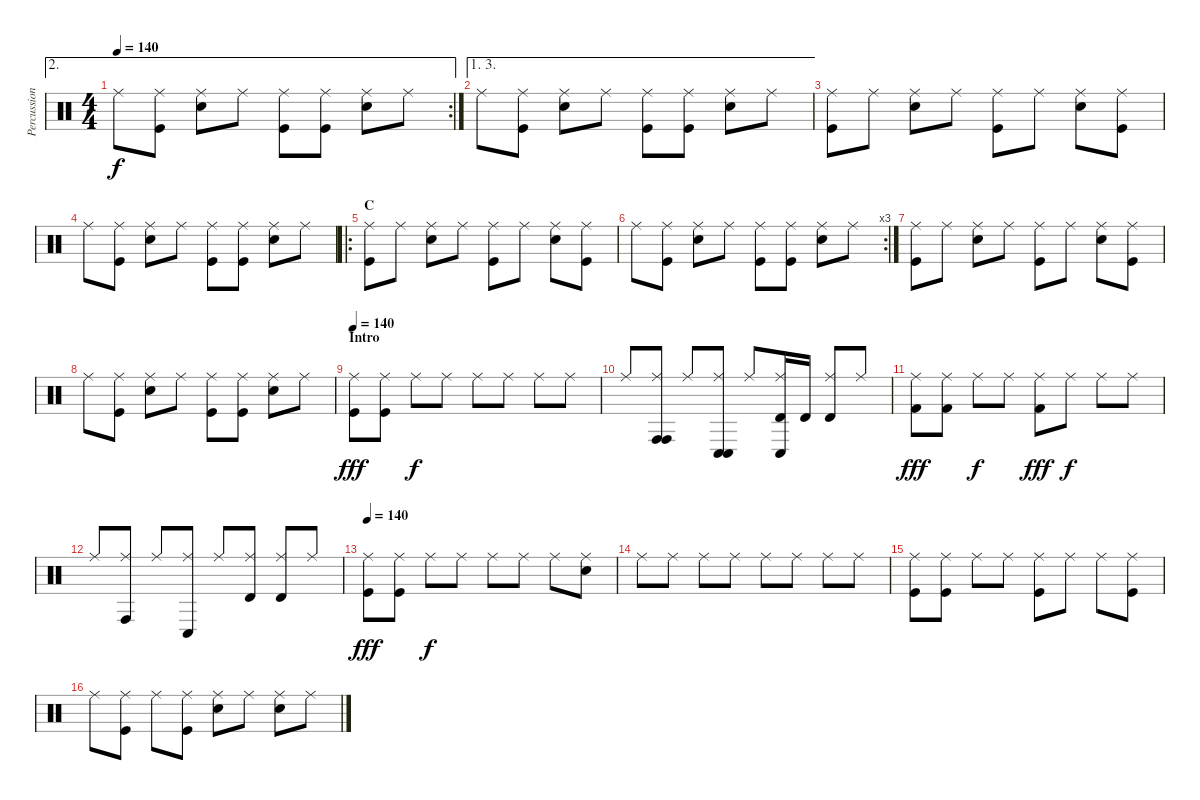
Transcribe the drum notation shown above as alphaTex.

\track ("Percussions" "Percussion") {instrument percussion}
\staff {score}
\articulation defaults
\ae 2
\rc 2
\ts (4 4)
\tempo 140
\clef neutral
\ks c "Ride (middle)".8{dy f}
("Ride (middle)" "Kick (hit)").8 ("Ride (middle)" "Snare (hit) 2").8 "Ride (middle)".8 ("Ride (middle)" "Kick (hit)").8 ("Ride (middle)" "Kick (hit)").8 ("Ride (middle)" "Snare (hit) 2").8 "Ride (middle)".8 |
\ae (1 3)
"Ride (middle)".8 ("Ride (middle)" "Kick (hit)").8 ("Ride (middle)" "Snare (hit) 2").8 "Ride (middle)".8 ("Ride (middle)" "Kick (hit)").8 ("Ride (middle)" "Kick (hit)").8 ("Ride (middle)" "Snare (hit) 2").8 "Ride (middle)".8 |
("Ride (middle)" "Kick (hit)").8 "Ride (middle)".8 ("Ride (middle)" "Snare (hit) 2").8 "Ride (middle)".8 ("Ride (middle)" "Kick (hit)").8 "Ride (middle)".8 ("Ride (middle)" "Snare (hit) 2").8 ("Ride (middle)" "Kick (hit)").8 |
"Ride (middle)".8 ("Ride (middle)" "Kick (hit)").8 ("Ride (middle)" "Snare (hit) 2").8 "Ride (middle)".8 ("Ride (middle)" "Kick (hit)").8 ("Ride (middle)" "Kick (hit)").8 ("Ride (middle)" "Snare (hit) 2").8 "Ride (middle)".8 |
\ro
\section ("" "C")
("Ride (middle)" "Kick (hit)").8 "Ride (middle)".8 ("Ride (middle)" "Snare (hit) 2").8 "Ride (middle)".8 ("Ride (middle)" "Kick (hit)").8 "Ride (middle)".8 ("Ride (middle)" "Snare (hit) 2").8 ("Ride (middle)" "Kick (hit)").8 |
\rc 3 "Ride (middle)".8
("Ride (middle)" "Kick (hit)").8 ("Ride (middle)" "Snare (hit) 2").8 "Ride (middle)".8 ("Ride (middle)" "Kick (hit)").8 ("Ride (middle)" "Kick (hit)").8 ("Ride (middle)" "Snare (hit) 2").8 "Ride (middle)".8 |
("Ride (middle)" "Kick (hit)").8 "Ride (middle)".8 ("Ride (middle)" "Snare (hit) 2").8 "Ride (middle)".8 ("Ride (middle)" "Kick (hit)").8 "Ride (middle)".8 ("Ride (middle)" "Snare (hit) 2").8 ("Ride (middle)" "Kick (hit)").8 |
"Ride (middle)".8 ("Ride (middle)" "Kick (hit)").8 ("Ride (middle)" "Snare (hit) 2").8 "Ride (middle)".8 ("Ride (middle)" "Kick (hit)").8 ("Ride (middle)" "Kick (hit)").8 ("Ride (middle)" "Snare (hit) 2").8 "Ride (middle)".8 |
\section ("" "Intro")
\tempo 140
("Ride (middle)" "Kick (hit)").8{dy fff} ("Ride (middle)" "Kick (hit)").8 "Ride (middle)".8{dy f} "Ride (middle)".8 "Ride (middle)".8 "Ride (middle)".8 "Ride (middle)".8 "Ride (middle)".8 |
"Ride (middle)".8 ("Ride (middle)" "Conga high (hit)" "Conga high (hit)").8 "Ride (middle)".8 ("Ride (middle)" "Conga low (hit)" "Conga low (hit)").8 "Ride (middle)".8 ("Ride (middle)" "Conga low (hit)" "Timbale high (hit)").16 "Timbale high (hit)".16 ("Ride (middle)" "Timbale high (hit)").8 "Ride (middle)".8 |
("Ride (middle)" "Kick (hit) 2").8{dy fff} ("Ride (middle)" "Kick (hit) 2").8 "Ride (middle)".8{dy f} "Ride (middle)".8 ("Ride (middle)" "Kick (hit) 2").8{dy fff} "Ride (middle)".8{dy f} "Ride (middle)".8 "Ride (middle)".8 |
"Ride (middle)".8 ("Ride (middle)" "Conga high (hit)").8 "Ride (middle)".8 ("Ride (middle)" "Conga low (hit)").8 "Ride (middle)".8 ("Ride (middle)" "Timbale high (hit)").8 ("Ride (middle)" "Timbale high (hit)").8 "Ride (middle)".8 |
\tempo 140
("Ride (middle)" "Kick (hit)").8{dy fff} ("Ride (middle)" "Kick (hit)").8 "Ride (middle)".8{dy f} "Ride (middle)".8 "Ride (middle)".8 "Ride (middle)".8 "Ride (middle)".8 ("Ride (middle)" "Snare (hit) 2").8 |
"Ride (middle)".8 "Ride (middle)".8 "Ride (middle)".8 "Ride (middle)".8 "Ride (middle)".8 "Ride (middle)".8 "Ride (middle)".8 "Ride (middle)".8 |
("Ride (middle)" "Kick (hit)").8 ("Ride (middle)" "Kick (hit)").8 "Ride (middle)".8 "Ride (middle)".8 ("Ride (middle)" "Kick (hit)").8 "Ride (middle)".8 "Ride (middle)".8 ("Ride (middle)" "Kick (hit)").8 |
"Ride (middle)".8 ("Ride (middle)" "Kick (hit)").8 "Ride (middle)".8 ("Ride (middle)" "Kick (hit)").8 ("Ride (middle)" "Snare (hit) 2").8 "Ride (middle)".8 ("Ride (middle)" "Snare (hit) 2").8 "Ride (middle)".8
